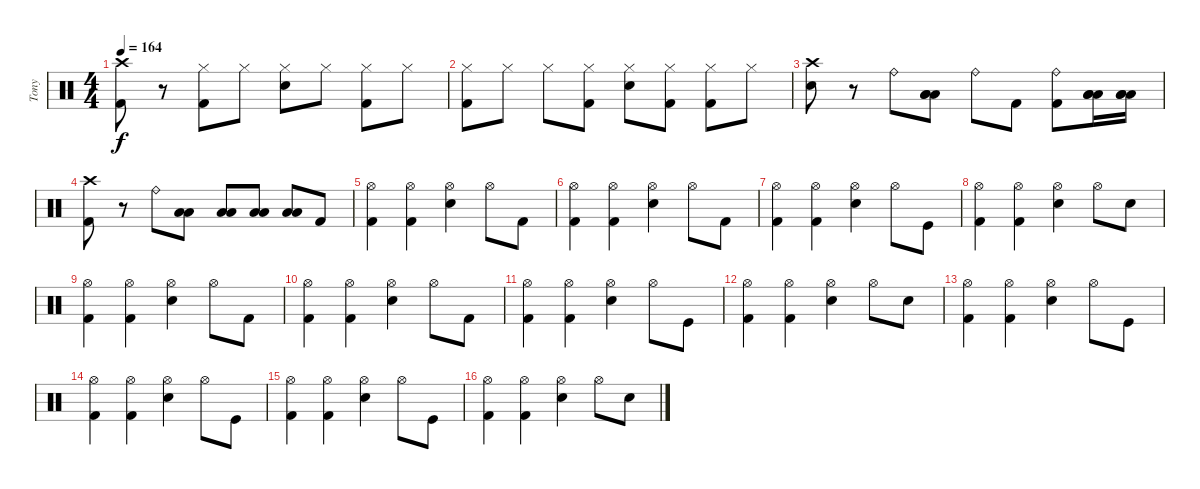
\track ("Tony" "Tony") {instrument percussion}
\staff {score}
\articulation defaults
\ts (4 4)
\tempo 164
\clef neutral
\ks c
("Kick (hit) 2" "Crash high (hit)").8{dy f} r.8 ("Kick (hit) 2" "Hi-Hat (closed)").8 "Hi-Hat (closed)".8 ("Snare (hit) 2" "Hi-Hat (closed)").8 "Hi-Hat (closed)".8 ("Kick (hit) 2" "Hi-Hat (closed)").8 "Hi-Hat (closed)".8 |
("Kick (hit) 2" "Hi-Hat (closed)").8 "Hi-Hat (closed)".8 "Hi-Hat (closed)".8 ("Kick (hit) 2" "Hi-Hat (closed)").8 ("Snare (hit) 2" "Hi-Hat (closed)").8 ("Kick (hit) 2" "Hi-Hat (closed)").8 ("Kick (hit) 2" "Hi-Hat (closed)").8 "Hi-Hat (closed)".8 |
("Crash high (hit)" "Snare (hit) 2").8 r.8 "Ride (bell)".8 ("Low Tom (hit)" "Low Tom (hit)" "Low Tom (hit)").8 "Ride (bell)".8 "Kick (hit) 2".8 ("Kick (hit) 2" "Ride (bell)").8 ("Low Floor Tom (hit)" "Low Floor Tom (hit)" "Low Floor Tom (hit)").16 ("Low Floor Tom (hit)" "Low Floor Tom (hit)" "Low Floor Tom (hit)").16 |
("Kick (hit) 2" "Crash high (hit)").8 r.8 "Ride (bell)".8 ("Low Tom (hit)" "Low Tom (hit)").8 ("Low Tom (hit)" "Low Tom (hit)").8 ("Low Floor Tom (hit)" "Low Floor Tom (hit)").8 ("Low Floor Tom (hit)" "Low Floor Tom (hit)").8 "Kick (hit) 2".8 |
("Hi-Hat (open)" "Kick (hit) 2").4 ("Hi-Hat (open)" "Kick (hit) 2").4 ("Hi-Hat (open)" "Electric Snare (hit)").4 "Hi-Hat (open)".8 "Kick (hit) 2".8 |
("Hi-Hat (open)" "Kick (hit) 2").4 ("Hi-Hat (open)" "Kick (hit) 2").4 ("Hi-Hat (open)" "Electric Snare (hit)").4 "Hi-Hat (open)".8 "Kick (hit) 2".8 |
("Hi-Hat (open)" "Kick (hit) 2").4 ("Hi-Hat (open)" "Kick (hit) 2").4 ("Hi-Hat (open)" "Electric Snare (hit)").4 "Hi-Hat (open)".8 "Kick (hit)".8 |
("Hi-Hat (open)" "Kick (hit) 2").4 ("Hi-Hat (open)" "Kick (hit) 2").4 ("Hi-Hat (open)" "Electric Snare (hit)").4 "Hi-Hat (open)".8 "Snare (hit) 2".8 |
("Hi-Hat (open)" "Kick (hit) 2").4 ("Hi-Hat (open)" "Kick (hit) 2").4 ("Hi-Hat (open)" "Electric Snare (hit)").4 "Hi-Hat (open)".8 "Kick (hit) 2".8 |
("Hi-Hat (open)" "Kick (hit) 2").4 ("Hi-Hat (open)" "Kick (hit) 2").4 ("Hi-Hat (open)" "Electric Snare (hit)").4 "Hi-Hat (open)".8 "Kick (hit) 2".8 |
("Hi-Hat (open)" "Kick (hit) 2").4 ("Hi-Hat (open)" "Kick (hit) 2").4 ("Hi-Hat (open)" "Electric Snare (hit)").4 "Hi-Hat (open)".8 "Kick (hit)".8 |
("Hi-Hat (open)" "Kick (hit) 2").4 ("Hi-Hat (open)" "Kick (hit) 2").4 ("Hi-Hat (open)" "Electric Snare (hit)").4 "Hi-Hat (open)".8 "Snare (hit) 2".8 |
("Hi-Hat (open)" "Kick (hit) 2").4 ("Hi-Hat (open)" "Kick (hit) 2").4 ("Hi-Hat (open)" "Electric Snare (hit)").4 "Hi-Hat (open)".8 "Kick (hit)".8 |
("Hi-Hat (open)" "Kick (hit) 2").4 ("Hi-Hat (open)" "Kick (hit) 2").4 ("Hi-Hat (open)" "Electric Snare (hit)").4 "Hi-Hat (open)".8 "Kick (hit)".8 |
("Hi-Hat (open)" "Kick (hit) 2").4 ("Hi-Hat (open)" "Kick (hit) 2").4 ("Hi-Hat (open)" "Electric Snare (hit)").4 "Hi-Hat (open)".8 "Kick (hit)".8 |
("Hi-Hat (open)" "Kick (hit) 2").4 ("Hi-Hat (open)" "Kick (hit) 2").4 ("Hi-Hat (open)" "Electric Snare (hit)").4 "Hi-Hat (open)".8 "Snare (hit) 2".8
